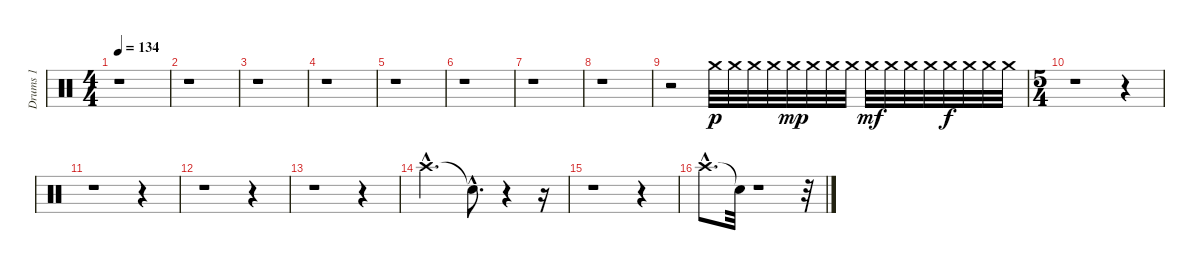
\track ("Drums 1" "Drums 1") {instrument percussion}
\staff {score}
\articulation defaults
\ts (4 4)
\tempo 134
\clef neutral
\ks c
r.1{dy f} |
r.1 |
r.1 |
r.1 |
r.1 |
r.1 |
r.1 |
r.1 |
r.2 "Crash medium (hit)".32{dy p} "Crash medium (hit)".32 "Crash medium (hit)".32 "Crash medium (hit)".32 "Crash medium (hit)".32{dy mp} "Crash medium (hit)".32 "Crash medium (hit)".32 "Crash medium (hit)".32 "Crash medium (hit)".32{dy mf} "Crash medium (hit)".32 "Crash medium (hit)".32 "Crash medium (hit)".32 "Crash medium (hit)".32{dy f} "Crash medium (hit)".32 "Crash medium (hit)".32 "Crash medium (hit)".32 |
\ts (5 4)
r.1 r.4 |
r.1 r.4 |
r.1 r.4 |
r.1 r.4 |
"Crash high (hit)"{hac}.2{d} "Snare (hit)"{hac t}.8{d} r.4 r.16 |
r.1 r.4 |
"Crash high (hit)"{hac}.8{d} "Snare (hit)"{t}.32 r.1 r.32
